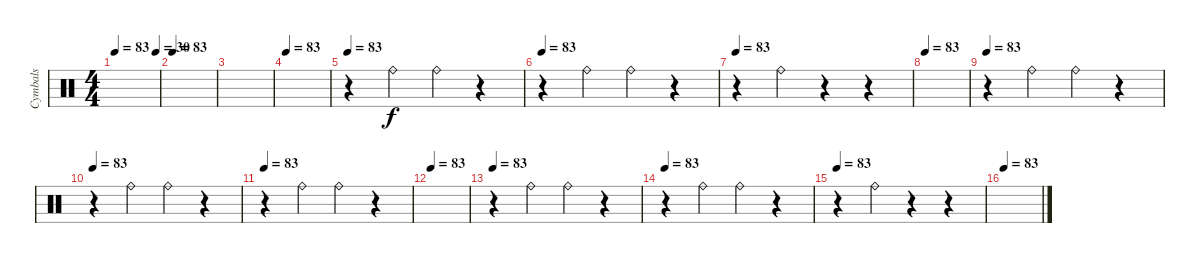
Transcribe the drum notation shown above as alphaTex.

\track ("Cymbals" "Cymbals") {instrument percussion}
\staff {score}
\articulation defaults
\ts (4 4)
\tempo 83
\tempo (30 0.9375)
\clef neutral
\ks c
|
\tempo 83
|
|
\tempo 83
|
\tempo 83
r.4 "Ride (bell)".4{dy f} "Ride (bell)".4 r.4 |
\tempo 83
r.4 "Ride (bell)".4 "Ride (bell)".4 r.4 |
\tempo 83
r.4 "Ride (bell)".4 r.4 r.4 |
\tempo 83
|
\tempo 83
r.4 "Ride (bell)".4 "Ride (bell)".4 r.4 |
\tempo 83
r.4 "Ride (bell)".4 "Ride (bell)".4 r.4 |
\tempo 83
r.4 "Ride (bell)".4 "Ride (bell)".4 r.4 |
\tempo 83
|
\tempo 83
r.4 "Ride (bell)".4 "Ride (bell)".4 r.4 |
\tempo 83
r.4 "Ride (bell)".4 "Ride (bell)".4 r.4 |
\tempo 83
r.4 "Ride (bell)".4 r.4 r.4 |
\tempo 83
